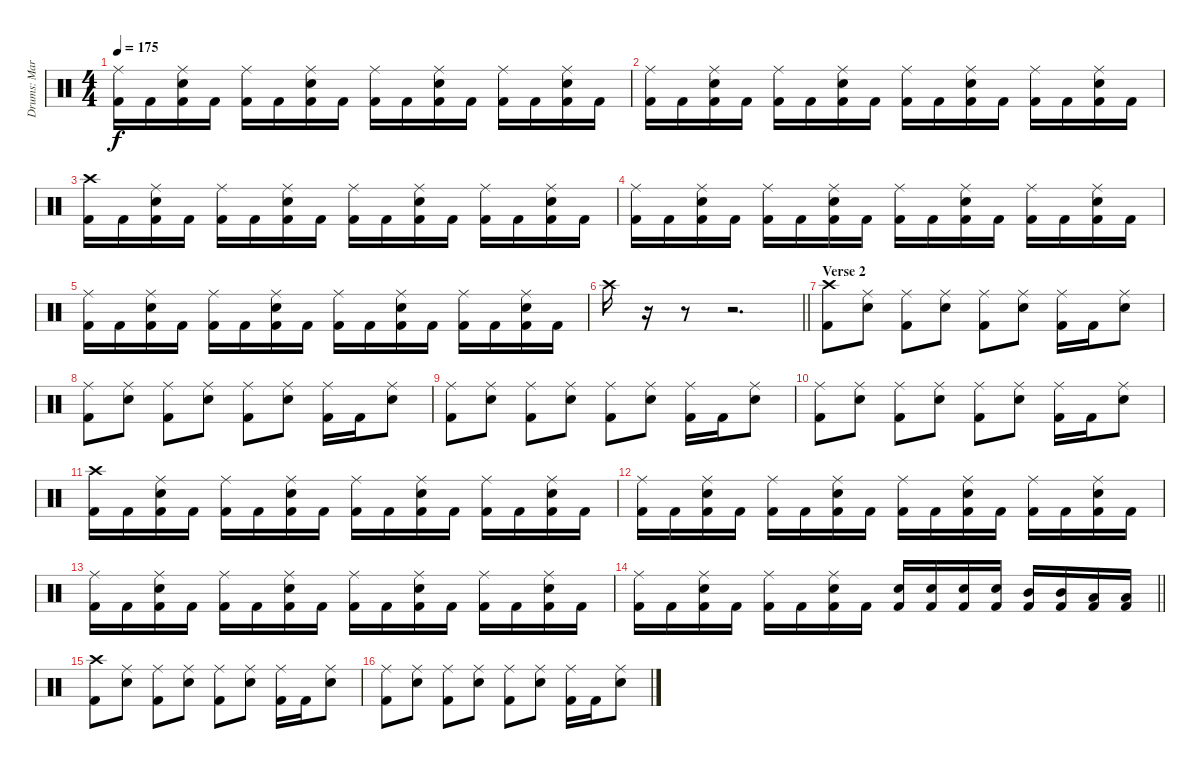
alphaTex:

\track ("Drums: Martin Herzinger" "Drums: Mar") {instrument percussion}
\staff {score}
\articulation defaults
\ts (4 4)
\tempo 175
\clef neutral
\ks aminor
("Ride (middle)" "Kick (hit) 2").16{dy f} "Kick (hit) 2".16 ("Ride (middle)" "Snare (hit) 2" "Kick (hit) 2").16 "Kick (hit) 2".16 ("Ride (middle)" "Kick (hit) 2").16 "Kick (hit) 2".16 ("Ride (middle)" "Snare (hit) 2" "Kick (hit) 2").16 "Kick (hit) 2".16 ("Ride (middle)" "Kick (hit) 2").16 "Kick (hit) 2".16 ("Ride (middle)" "Snare (hit) 2" "Kick (hit) 2").16 "Kick (hit) 2".16 ("Ride (middle)" "Kick (hit) 2").16 "Kick (hit) 2".16 ("Ride (middle)" "Snare (hit) 2" "Kick (hit) 2").16 "Kick (hit) 2".16 |
("Ride (middle)" "Kick (hit) 2").16 "Kick (hit) 2".16 ("Ride (middle)" "Snare (hit) 2" "Kick (hit) 2").16 "Kick (hit) 2".16 ("Ride (middle)" "Kick (hit) 2").16 "Kick (hit) 2".16 ("Ride (middle)" "Snare (hit) 2" "Kick (hit) 2").16 "Kick (hit) 2".16 ("Ride (middle)" "Kick (hit) 2").16 "Kick (hit) 2".16 ("Ride (middle)" "Snare (hit) 2" "Kick (hit) 2").16 "Kick (hit) 2".16 ("Ride (middle)" "Kick (hit) 2").16 "Kick (hit) 2".16 ("Ride (middle)" "Snare (hit) 2" "Kick (hit) 2").16 "Kick (hit) 2".16 |
("Crash high (hit)" "Kick (hit) 2").16 "Kick (hit) 2".16 ("Ride (middle)" "Snare (hit) 2" "Kick (hit) 2").16 "Kick (hit) 2".16 ("Ride (middle)" "Kick (hit) 2").16 "Kick (hit) 2".16 ("Ride (middle)" "Snare (hit) 2" "Kick (hit) 2").16 "Kick (hit) 2".16 ("Ride (middle)" "Kick (hit) 2").16 "Kick (hit) 2".16 ("Ride (middle)" "Snare (hit) 2" "Kick (hit) 2").16 "Kick (hit) 2".16 ("Ride (middle)" "Kick (hit) 2").16 "Kick (hit) 2".16 ("Ride (middle)" "Snare (hit) 2" "Kick (hit) 2").16 "Kick (hit) 2".16 |
("Ride (middle)" "Kick (hit) 2").16 "Kick (hit) 2".16 ("Ride (middle)" "Snare (hit) 2" "Kick (hit) 2").16 "Kick (hit) 2".16 ("Ride (middle)" "Kick (hit) 2").16 "Kick (hit) 2".16 ("Ride (middle)" "Snare (hit) 2" "Kick (hit) 2").16 "Kick (hit) 2".16 ("Ride (middle)" "Kick (hit) 2").16 "Kick (hit) 2".16 ("Ride (middle)" "Snare (hit) 2" "Kick (hit) 2").16 "Kick (hit) 2".16 ("Ride (middle)" "Kick (hit) 2").16 "Kick (hit) 2".16 ("Ride (middle)" "Snare (hit) 2" "Kick (hit) 2").16 "Kick (hit) 2".16 |
("Ride (middle)" "Kick (hit) 2").16 "Kick (hit) 2".16 ("Ride (middle)" "Snare (hit) 2" "Kick (hit) 2").16 "Kick (hit) 2".16 ("Ride (middle)" "Kick (hit) 2").16 "Kick (hit) 2".16 ("Ride (middle)" "Snare (hit) 2" "Kick (hit) 2").16 "Kick (hit) 2".16 ("Ride (middle)" "Kick (hit) 2").16 "Kick (hit) 2".16 ("Ride (middle)" "Snare (hit) 2" "Kick (hit) 2").16 "Kick (hit) 2".16 ("Ride (middle)" "Kick (hit) 2").16 "Kick (hit) 2".16 ("Ride (middle)" "Snare (hit) 2" "Kick (hit) 2").16 "Kick (hit) 2".16 |
\barLineRight lightlight "Crash high (hit)".16
r.16 r.8 r.2{d} |
\section ("" "Verse 2")
("Crash high (hit)" "Kick (hit) 2").8 ("Ride (middle)" "Snare (hit) 2").8 ("Ride (middle)" "Kick (hit) 2").8 ("Ride (middle)" "Snare (hit) 2").8 ("Ride (middle)" "Kick (hit) 2").8 ("Ride (middle)" "Snare (hit) 2").8 ("Ride (middle)" "Kick (hit) 2").16 "Kick (hit) 2".16 ("Ride (middle)" "Snare (hit) 2").8 |
("Ride (middle)" "Kick (hit) 2").8 ("Ride (middle)" "Snare (hit) 2").8 ("Ride (middle)" "Kick (hit) 2").8 ("Ride (middle)" "Snare (hit) 2").8 ("Ride (middle)" "Kick (hit) 2").8 ("Ride (middle)" "Snare (hit) 2").8 ("Ride (middle)" "Kick (hit) 2").16 "Kick (hit) 2".16 ("Ride (middle)" "Snare (hit) 2").8 |
("Ride (middle)" "Kick (hit) 2").8 ("Ride (middle)" "Snare (hit) 2").8 ("Ride (middle)" "Kick (hit) 2").8 ("Ride (middle)" "Snare (hit) 2").8 ("Ride (middle)" "Kick (hit) 2").8 ("Ride (middle)" "Snare (hit) 2").8 ("Ride (middle)" "Kick (hit) 2").16 "Kick (hit) 2".16 ("Ride (middle)" "Snare (hit) 2").8 |
("Ride (middle)" "Kick (hit) 2").8 ("Ride (middle)" "Snare (hit) 2").8 ("Ride (middle)" "Kick (hit) 2").8 ("Ride (middle)" "Snare (hit) 2").8 ("Ride (middle)" "Kick (hit) 2").8 ("Ride (middle)" "Snare (hit) 2").8 ("Ride (middle)" "Kick (hit) 2").16 "Kick (hit) 2".16 ("Ride (middle)" "Snare (hit) 2").8 |
("Crash high (hit)" "Kick (hit) 2").16 "Kick (hit) 2".16 ("Ride (middle)" "Snare (hit) 2" "Kick (hit) 2").16 "Kick (hit) 2".16 ("Ride (middle)" "Kick (hit) 2").16 "Kick (hit) 2".16 ("Ride (middle)" "Snare (hit) 2" "Kick (hit) 2").16 "Kick (hit) 2".16 ("Ride (middle)" "Kick (hit) 2").16 "Kick (hit) 2".16 ("Ride (middle)" "Snare (hit) 2" "Kick (hit) 2").16 "Kick (hit) 2".16 ("Ride (middle)" "Kick (hit) 2").16 "Kick (hit) 2".16 ("Ride (middle)" "Snare (hit) 2" "Kick (hit) 2").16 "Kick (hit) 2".16 |
("Ride (middle)" "Kick (hit) 2").16 "Kick (hit) 2".16 ("Ride (middle)" "Snare (hit) 2" "Kick (hit) 2").16 "Kick (hit) 2".16 ("Ride (middle)" "Kick (hit) 2").16 "Kick (hit) 2".16 ("Ride (middle)" "Snare (hit) 2" "Kick (hit) 2").16 "Kick (hit) 2".16 ("Ride (middle)" "Kick (hit) 2").16 "Kick (hit) 2".16 ("Ride (middle)" "Snare (hit) 2" "Kick (hit) 2").16 "Kick (hit) 2".16 ("Ride (middle)" "Kick (hit) 2").16 "Kick (hit) 2".16 ("Ride (middle)" "Snare (hit) 2" "Kick (hit) 2").16 "Kick (hit) 2".16 |
("Ride (middle)" "Kick (hit) 2").16 "Kick (hit) 2".16 ("Ride (middle)" "Snare (hit) 2" "Kick (hit) 2").16 "Kick (hit) 2".16 ("Ride (middle)" "Kick (hit) 2").16 "Kick (hit) 2".16 ("Ride (middle)" "Snare (hit) 2" "Kick (hit) 2").16 "Kick (hit) 2".16 ("Ride (middle)" "Kick (hit) 2").16 "Kick (hit) 2".16 ("Ride (middle)" "Snare (hit) 2" "Kick (hit) 2").16 "Kick (hit) 2".16 ("Ride (middle)" "Kick (hit) 2").16 "Kick (hit) 2".16 ("Ride (middle)" "Snare (hit) 2" "Kick (hit) 2").16 "Kick (hit) 2".16 |
\barLineRight lightlight
("Ride (middle)" "Kick (hit) 2").16 "Kick (hit) 2".16 ("Ride (middle)" "Snare (hit) 2" "Kick (hit) 2").16 "Kick (hit) 2".16 ("Ride (middle)" "Kick (hit) 2").16 "Kick (hit) 2".16 ("Ride (middle)" "Snare (hit) 2" "Kick (hit) 2").16 "Kick (hit) 2".16 ("Snare (hit) 2" "Kick (hit) 2").16 ("Snare (hit) 2" "Kick (hit) 2").16 ("Snare (hit) 2" "Kick (hit) 2").16 ("Snare (hit) 2" "Kick (hit) 2").16 ("Mid Tom (hit)" "Kick (hit) 2").16 ("Mid Tom (hit)" "Kick (hit) 2").16 ("Low Tom (hit)" "Kick (hit) 2").16 ("Low Tom (hit)" "Kick (hit) 2").16 |
("Crash high (hit)" "Kick (hit) 2").8 ("Ride (middle)" "Snare (hit) 2").8 ("Ride (middle)" "Kick (hit) 2").8 ("Ride (middle)" "Snare (hit) 2").8 ("Ride (middle)" "Kick (hit) 2").8 ("Ride (middle)" "Snare (hit) 2").8 ("Ride (middle)" "Kick (hit) 2").16 "Kick (hit) 2".16 ("Ride (middle)" "Snare (hit) 2").8 |
("Ride (middle)" "Kick (hit) 2").8 ("Ride (middle)" "Snare (hit) 2").8 ("Ride (middle)" "Kick (hit) 2").8 ("Ride (middle)" "Snare (hit) 2").8 ("Ride (middle)" "Kick (hit) 2").8 ("Ride (middle)" "Snare (hit) 2").8 ("Ride (middle)" "Kick (hit) 2").16 "Kick (hit) 2".16 ("Ride (middle)" "Snare (hit) 2").8
